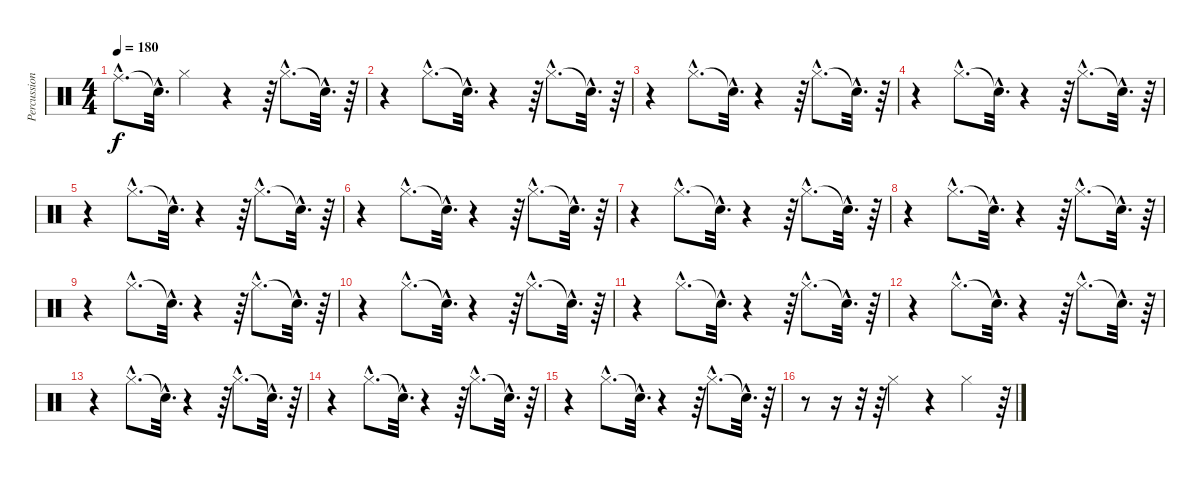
\track ("Percussion" "Percussion") {instrument percussion}
\staff {score}
\articulation defaults
\ts (4 4)
\tempo 180
\clef neutral
\ks c "Ride (middle)"{hac}.8{d dy f} "Snare (hit)"{hac t}.32{d} "Hi-Hat (closed)".4
r.4 r.64 "Hi-Hat (closed)"{hac}.8{d} "Snare (hit)"{hac t}.32{d} r.64 |
r.4 "Hi-Hat (closed)"{hac}.8{d} "Snare (hit)"{hac t}.32{d} r.4 r.64 "Hi-Hat (closed)"{hac}.8{d} "Snare (hit)"{hac t}.32{d} r.64 |
r.4 "Hi-Hat (closed)"{hac}.8{d} "Snare (hit)"{hac t}.32{d} r.4 r.64 "Hi-Hat (closed)"{hac}.8{d} "Snare (hit)"{hac t}.32{d} r.64 |
r.4 "Hi-Hat (closed)"{hac}.8{d} "Snare (hit)"{hac t}.32{d} r.4 r.64 "Hi-Hat (closed)"{hac}.8{d} "Snare (hit)"{hac t}.32{d} r.64 |
r.4 "Hi-Hat (closed)"{hac}.8{d} "Snare (hit)"{hac t}.32{d} r.4 r.64 "Hi-Hat (closed)"{hac}.8{d} "Snare (hit)"{hac t}.32{d} r.64 |
r.4 "Hi-Hat (closed)"{hac}.8{d} "Snare (hit)"{hac t}.32{d} r.4 r.64 "Hi-Hat (closed)"{hac}.8{d} "Snare (hit)"{hac t}.32{d} r.64 |
r.4 "Hi-Hat (closed)"{hac}.8{d} "Snare (hit)"{hac t}.32{d} r.4 r.64 "Hi-Hat (closed)"{hac}.8{d} "Snare (hit)"{hac t}.32{d} r.64 |
r.4 "Hi-Hat (closed)"{hac}.8{d} "Snare (hit)"{hac t}.32{d} r.4 r.64 "Hi-Hat (closed)"{hac}.8{d} "Snare (hit)"{hac t}.32{d} r.64 |
r.4 "Hi-Hat (closed)"{hac}.8{d} "Snare (hit)"{hac t}.32{d} r.4 r.64 "Hi-Hat (closed)"{hac}.8{d} "Snare (hit)"{hac t}.32{d} r.64 |
r.4 "Hi-Hat (closed)"{hac}.8{d} "Snare (hit)"{hac t}.32{d} r.4 r.64 "Hi-Hat (closed)"{hac}.8{d} "Snare (hit)"{hac t}.32{d} r.64 |
r.4 "Hi-Hat (closed)"{hac}.8{d} "Snare (hit)"{hac t}.32{d} r.4 r.64 "Hi-Hat (closed)"{hac}.8{d} "Snare (hit)"{hac t}.32{d} r.64 |
r.4 "Hi-Hat (closed)"{hac}.8{d} "Snare (hit)"{hac t}.32{d} r.4 r.64 "Hi-Hat (closed)"{hac}.8{d} "Snare (hit)"{hac t}.32{d} r.64 |
r.4 "Hi-Hat (closed)"{hac}.8{d} "Snare (hit)"{hac t}.32{d} r.4 r.64 "Hi-Hat (closed)"{hac}.8{d} "Snare (hit)"{hac t}.32{d} r.64 |
r.4 "Hi-Hat (closed)"{hac}.8{d} "Snare (hit)"{hac t}.32{d} r.4 r.64 "Hi-Hat (closed)"{hac}.8{d} "Snare (hit)"{hac t}.32{d} r.64 |
r.4 "Hi-Hat (closed)"{hac}.8{d} "Snare (hit)"{hac t}.32{d} r.4 r.64 "Hi-Hat (closed)"{hac}.8{d} "Snare (hit)"{hac t}.32{d} r.64 |
r.8 r.16 r.32 r.64 "Hi-Hat (closed)".4 r.4 "Hi-Hat (closed)".4 r.64
